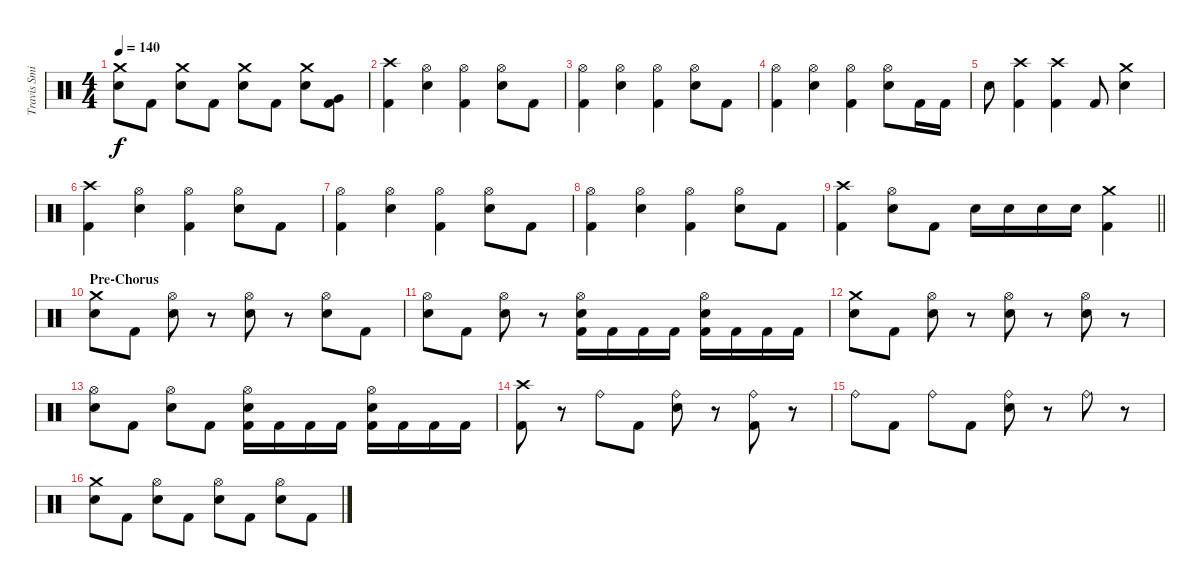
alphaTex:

\track ("Travis Smith" "Travis Smi") {instrument percussion}
\staff {score}
\articulation defaults
\ts (4 4)
\tempo 140
\clef neutral
\ks c
("Crash medium (hit)" "Electric Snare (hit)").8{dy f} "Kick (hit) 2".8 ("Crash medium (hit)" "Electric Snare (hit)").8 "Kick (hit) 2".8 ("Crash medium (hit)" "Electric Snare (hit)").8 "Kick (hit) 2".8 ("Crash medium (hit)" "Electric Snare (hit)").8 ("Very Low Tom (hit)" "Kick (hit) 2").8 |
("Crash high (hit)" "Kick (hit) 2").4 ("Hi-Hat (open)" "Electric Snare (hit)").4 ("Hi-Hat (open)" "Kick (hit) 2").4 ("Hi-Hat (open)" "Electric Snare (hit)").8 "Kick (hit) 2".8 |
("Hi-Hat (open)" "Kick (hit) 2").4 ("Hi-Hat (open)" "Electric Snare (hit)").4 ("Hi-Hat (open)" "Kick (hit) 2").4 ("Hi-Hat (open)" "Electric Snare (hit)").8 "Kick (hit) 2".8 |
("Hi-Hat (open)" "Kick (hit) 2").4 ("Hi-Hat (open)" "Electric Snare (hit)").4 ("Hi-Hat (open)" "Kick (hit) 2").4 ("Hi-Hat (open)" "Electric Snare (hit)").8 "Kick (hit) 2".16 "Kick (hit) 2".16 |
"Electric Snare (hit)".8 ("Crash high (hit)" "Kick (hit) 2").4 ("Crash high (hit)" "Kick (hit) 2").4 "Kick (hit) 2".8 ("Crash medium (hit)" "Electric Snare (hit)").4 |
("Crash high (hit)" "Kick (hit) 2").4 ("Hi-Hat (open)" "Electric Snare (hit)").4 ("Hi-Hat (open)" "Kick (hit) 2").4 ("Hi-Hat (open)" "Electric Snare (hit)").8 "Kick (hit) 2".8 |
("Hi-Hat (open)" "Kick (hit) 2").4 ("Hi-Hat (open)" "Electric Snare (hit)").4 ("Hi-Hat (open)" "Kick (hit) 2").4 ("Hi-Hat (open)" "Electric Snare (hit)").8 "Kick (hit) 2".8 |
("Hi-Hat (open)" "Kick (hit) 2").4 ("Hi-Hat (open)" "Electric Snare (hit)").4 ("Hi-Hat (open)" "Kick (hit) 2").4 ("Hi-Hat (open)" "Electric Snare (hit)").8 "Kick (hit) 2".8 |
\barLineRight lightlight
("Crash high (hit)" "Kick (hit) 2").4 ("Hi-Hat (open)" "Electric Snare (hit)").8 "Kick (hit) 2".8 "Electric Snare (hit)".16 "Electric Snare (hit)".16 "Electric Snare (hit)".16 "Electric Snare (hit)".16 ("Crash medium (hit)" "Kick (hit) 2").4 |
\section ("" "Pre-Chorus")
("Crash medium (hit)" "Electric Snare (hit)").8 "Kick (hit) 2".8 ("Hi-Hat (open)" "Electric Snare (hit)").8 r.8 ("Hi-Hat (open)" "Electric Snare (hit)").8 r.8 ("Hi-Hat (open)" "Electric Snare (hit)").8 "Kick (hit) 2".8 |
("Hi-Hat (open)" "Electric Snare (hit)").8 "Kick (hit) 2".8 ("Hi-Hat (open)" "Electric Snare (hit)").8 r.8 ("Kick (hit) 2" "Hi-Hat (open)" "Electric Snare (hit)").16 "Kick (hit) 2".16 "Kick (hit) 2".16 "Kick (hit) 2".16 ("Kick (hit) 2" "Hi-Hat (open)" "Electric Snare (hit)").16 "Kick (hit) 2".16 "Kick (hit) 2".16 "Kick (hit) 2".16 |
("Crash medium (hit)" "Electric Snare (hit)").8 "Kick (hit) 2".8 ("Hi-Hat (open)" "Electric Snare (hit)").8 r.8 ("Hi-Hat (open)" "Electric Snare (hit)").8 r.8 ("Hi-Hat (open)" "Electric Snare (hit)").8 r.8 |
("Hi-Hat (open)" "Electric Snare (hit)").8 "Kick (hit) 2".8 ("Hi-Hat (open)" "Electric Snare (hit)").8 "Kick (hit) 2".8 ("Hi-Hat (open)" "Electric Snare (hit)" "Kick (hit) 2").16 "Kick (hit) 2".16 "Kick (hit) 2".16 "Kick (hit) 2".16 ("Hi-Hat (open)" "Electric Snare (hit)" "Kick (hit) 2").16 "Kick (hit) 2".16 "Kick (hit) 2".16 "Kick (hit) 2".16 |
("Crash high (hit)" "Kick (hit) 2").8 r.8 "Ride (bell)".8 "Kick (hit) 2".8 ("Ride (bell)" "Electric Snare (hit)").8 r.8 ("Ride (bell)" "Kick (hit) 2").8 r.8 |
"Ride (bell)".8 "Kick (hit) 2".8 "Ride (bell)".8 "Kick (hit) 2".8 ("Ride (bell)" "Electric Snare (hit)").8 r.8 "Ride (bell)".8 r.8 |
("Crash medium (hit)" "Electric Snare (hit)").8 "Kick (hit) 2".8 ("Hi-Hat (open)" "Electric Snare (hit)").8 "Kick (hit) 2".8 ("Hi-Hat (open)" "Electric Snare (hit)").8 "Kick (hit) 2".8 ("Hi-Hat (open)" "Electric Snare (hit)").8 "Kick (hit) 2".8
